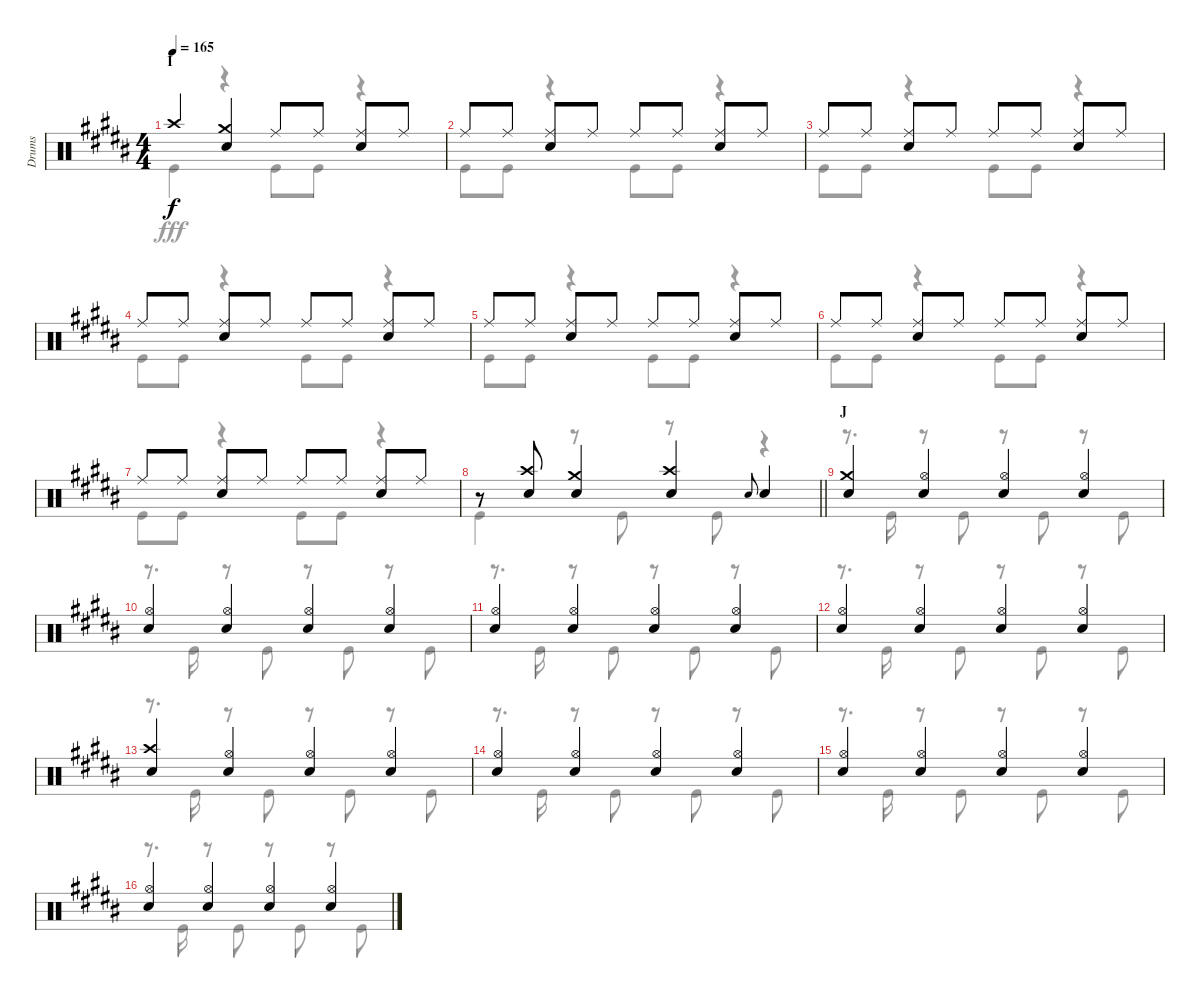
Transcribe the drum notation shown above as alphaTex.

\track ("Drums" "Drums") {instrument percussion}
\staff {score}
\articulation defaults
\voice
\ts (4 4)
\section ("" "I")
\tempo 165
\clef neutral
\ks b "Crash high (hit)".4{dy f}
("Crash medium (hit)" "Snare (hit) 2").4 "Ride (middle)".8 "Ride (middle)".8 ("Ride (middle)" "Snare (hit) 2").8 "Ride (middle)".8 |
"Ride (middle)".8 "Ride (middle)".8 ("Ride (middle)" "Snare (hit) 2").8 "Ride (middle)".8 "Ride (middle)".8 "Ride (middle)".8 ("Ride (middle)" "Snare (hit) 2").8 "Ride (middle)".8 |
"Ride (middle)".8 "Ride (middle)".8 ("Ride (middle)" "Snare (hit) 2").8 "Ride (middle)".8 "Ride (middle)".8 "Ride (middle)".8 ("Ride (middle)" "Snare (hit) 2").8 "Ride (middle)".8 |
"Ride (middle)".8 "Ride (middle)".8 ("Ride (middle)" "Snare (hit) 2").8 "Ride (middle)".8 "Ride (middle)".8 "Ride (middle)".8 ("Ride (middle)" "Snare (hit) 2").8 "Ride (middle)".8 |
"Ride (middle)".8 "Ride (middle)".8 ("Ride (middle)" "Snare (hit) 2").8 "Ride (middle)".8 "Ride (middle)".8 "Ride (middle)".8 ("Ride (middle)" "Snare (hit) 2").8 "Ride (middle)".8 |
"Ride (middle)".8 "Ride (middle)".8 ("Ride (middle)" "Snare (hit) 2").8 "Ride (middle)".8 "Ride (middle)".8 "Ride (middle)".8 ("Ride (middle)" "Snare (hit) 2").8 "Ride (middle)".8 |
"Ride (middle)".8 "Ride (middle)".8 ("Ride (middle)" "Snare (hit) 2").8 "Ride (middle)".8 "Ride (middle)".8 "Ride (middle)".8 ("Ride (middle)" "Snare (hit) 2").8 "Ride (middle)".8 |
\barLineRight lightlight
r.8 ("Crash high (hit)" "Snare (hit) 2").8 ("Crash medium (hit)" "Snare (hit) 2").4 ("Crash high (hit)" "Snare (hit) 2").4 "Snare (hit) 2".8{gr onbeat} "Snare (hit) 2".4 |
\section ("" "J")
("Crash medium (hit)" "Snare (hit) 2").4 ("Hi-Hat (open)" "Snare (hit) 2").4 ("Hi-Hat (open)" "Snare (hit) 2").4 ("Hi-Hat (open)" "Snare (hit) 2").4 |
("Hi-Hat (open)" "Snare (hit) 2").4 ("Hi-Hat (open)" "Snare (hit) 2").4 ("Hi-Hat (open)" "Snare (hit) 2").4 ("Hi-Hat (open)" "Snare (hit) 2").4 |
("Hi-Hat (open)" "Snare (hit) 2").4 ("Hi-Hat (open)" "Snare (hit) 2").4 ("Hi-Hat (open)" "Snare (hit) 2").4 ("Hi-Hat (open)" "Snare (hit) 2").4 |
("Hi-Hat (open)" "Snare (hit) 2").4 ("Hi-Hat (open)" "Snare (hit) 2").4 ("Hi-Hat (open)" "Snare (hit) 2").4 ("Hi-Hat (open)" "Snare (hit) 2").4 |
("Crash high (hit)" "Snare (hit) 2").4 ("Hi-Hat (open)" "Snare (hit) 2").4 ("Hi-Hat (open)" "Snare (hit) 2").4 ("Hi-Hat (open)" "Snare (hit) 2").4 |
("Hi-Hat (open)" "Snare (hit) 2").4 ("Hi-Hat (open)" "Snare (hit) 2").4 ("Hi-Hat (open)" "Snare (hit) 2").4 ("Hi-Hat (open)" "Snare (hit) 2").4 |
("Hi-Hat (open)" "Snare (hit) 2").4 ("Hi-Hat (open)" "Snare (hit) 2").4 ("Hi-Hat (open)" "Snare (hit) 2").4 ("Hi-Hat (open)" "Snare (hit) 2").4 |
("Hi-Hat (open)" "Snare (hit) 2").4 ("Hi-Hat (open)" "Snare (hit) 2").4 ("Hi-Hat (open)" "Snare (hit) 2").4 ("Hi-Hat (open)" "Snare (hit) 2").4
\voice
\clef neutral
\ottava regular
\simile none
\ks b "Kick (hit)".4{dy fff}
r.4 "Kick (hit)".8 "Kick (hit)".8 r.4 |
"Kick (hit)".8 "Kick (hit)".8 r.4 "Kick (hit)".8 "Kick (hit)".8 r.4 |
"Kick (hit)".8 "Kick (hit)".8 r.4 "Kick (hit)".8 "Kick (hit)".8 r.4 |
"Kick (hit)".8 "Kick (hit)".8 r.4 "Kick (hit)".8 "Kick (hit)".8 r.4 |
"Kick (hit)".8 "Kick (hit)".8 r.4 "Kick (hit)".8 "Kick (hit)".8 r.4 |
"Kick (hit)".8 "Kick (hit)".8 r.4 "Kick (hit)".8 "Kick (hit)".8 r.4 |
"Kick (hit)".8 "Kick (hit)".8 r.4 "Kick (hit)".8 "Kick (hit)".8 r.4 |
\barLineRight lightlight "Kick (hit)".4
r.8 "Kick (hit)".8 r.8 "Kick (hit)".8 r.4 |
r.8{d} "Kick (hit)".16 r.8 "Kick (hit)".8 r.8 "Kick (hit)".8 r.8 "Kick (hit)".8 |
r.8{d} "Kick (hit)".16 r.8 "Kick (hit)".8 r.8 "Kick (hit)".8 r.8 "Kick (hit)".8 |
r.8{d} "Kick (hit)".16 r.8 "Kick (hit)".8 r.8 "Kick (hit)".8 r.8 "Kick (hit)".8 |
r.8{d} "Kick (hit)".16 r.8 "Kick (hit)".8 r.8 "Kick (hit)".8 r.8 "Kick (hit)".8 |
r.8{d} "Kick (hit)".16 r.8 "Kick (hit)".8 r.8 "Kick (hit)".8 r.8 "Kick (hit)".8 |
r.8{d} "Kick (hit)".16 r.8 "Kick (hit)".8 r.8 "Kick (hit)".8 r.8 "Kick (hit)".8 |
r.8{d} "Kick (hit)".16 r.8 "Kick (hit)".8 r.8 "Kick (hit)".8 r.8 "Kick (hit)".8 |
r.8{d} "Kick (hit)".16 r.8 "Kick (hit)".8 r.8 "Kick (hit)".8 r.8 "Kick (hit)".8
